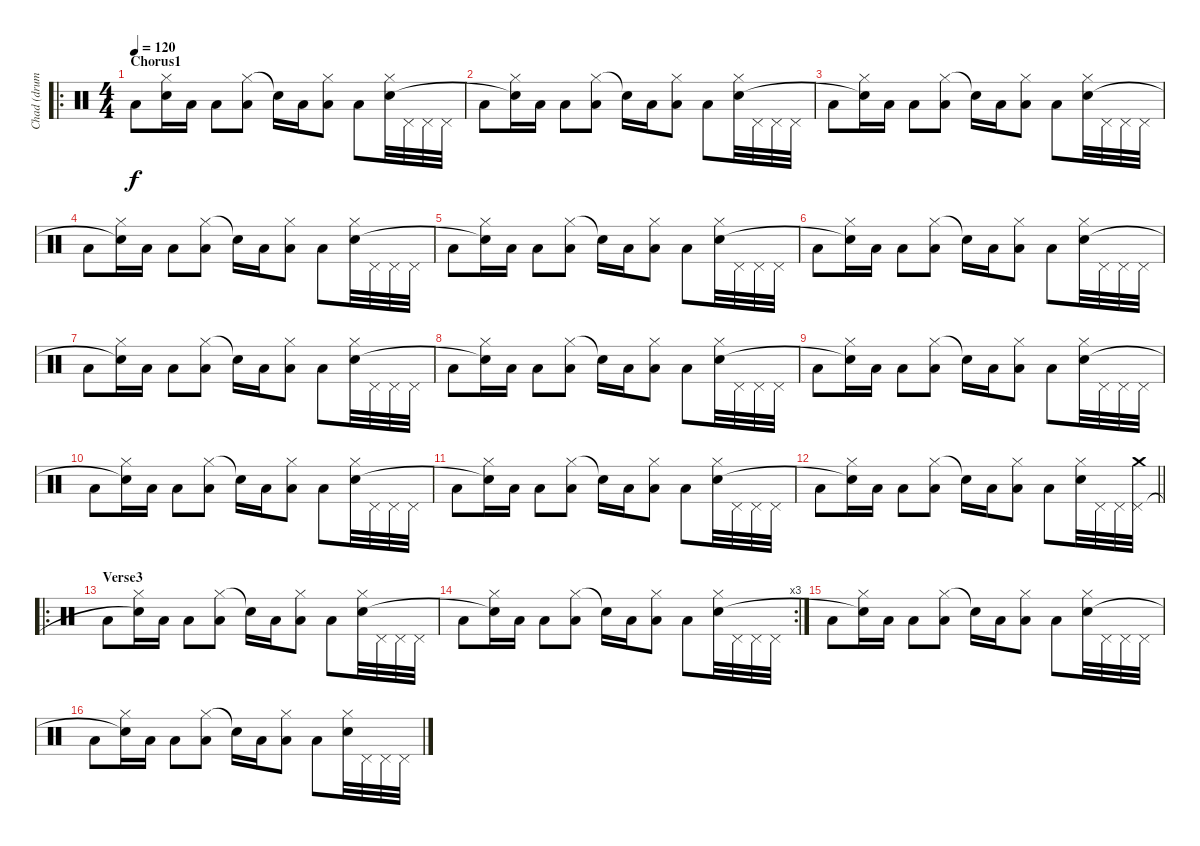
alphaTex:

\track ("Chad (drums)" "Chad (drum") {instrument percussion}
\staff {score}
\articulation defaults
\ro
\ts (4 4)
\section ("" "Chorus1")
\tempo 120
\clef neutral
\ks c "Low Tom (hit)".8{dy f}
("Hi-Hat (closed)" "Snare (hit)"{t}).16 "Low Tom (hit)".16 "Low Floor Tom (hit)".8 ("Hi-Hat (closed)" "Low Tom (hit)").8 "Snare (hit)"{t}.16 "Low Tom (hit)".16 ("Hi-Hat (closed)" "Low Floor Tom (hit)").8 "Low Tom (hit)".8 ("Hi-Hat (closed)" "Snare (hit) 2").32 "Pedal Hi-Hat (hit)".32 "Pedal Hi-Hat (hit)".32 "Pedal Hi-Hat (hit)".32 |
"Low Tom (hit)".8 ("Hi-Hat (closed)" "Snare (hit)"{t}).16 "Low Tom (hit)".16 "Low Floor Tom (hit)".8 ("Hi-Hat (closed)" "Low Tom (hit)").8 "Snare (hit)"{t}.16 "Low Tom (hit)".16 ("Hi-Hat (closed)" "Low Floor Tom (hit)").8 "Low Tom (hit)".8 ("Hi-Hat (closed)" "Snare (hit) 2").32 "Pedal Hi-Hat (hit)".32 "Pedal Hi-Hat (hit)".32 "Pedal Hi-Hat (hit)".32 |
"Low Tom (hit)".8 ("Hi-Hat (closed)" "Snare (hit)"{t}).16 "Low Tom (hit)".16 "Low Floor Tom (hit)".8 ("Hi-Hat (closed)" "Low Tom (hit)").8 "Snare (hit)"{t}.16 "Low Tom (hit)".16 ("Hi-Hat (closed)" "Low Floor Tom (hit)").8 "Low Tom (hit)".8 ("Hi-Hat (closed)" "Snare (hit) 2").32 "Pedal Hi-Hat (hit)".32 "Pedal Hi-Hat (hit)".32 "Pedal Hi-Hat (hit)".32 |
"Low Tom (hit)".8 ("Hi-Hat (closed)" "Snare (hit)"{t}).16 "Low Tom (hit)".16 "Low Floor Tom (hit)".8 ("Hi-Hat (closed)" "Low Tom (hit)").8 "Snare (hit)"{t}.16 "Low Tom (hit)".16 ("Hi-Hat (closed)" "Low Floor Tom (hit)").8 "Low Tom (hit)".8 ("Hi-Hat (closed)" "Snare (hit) 2").32 "Pedal Hi-Hat (hit)".32 "Pedal Hi-Hat (hit)".32 "Pedal Hi-Hat (hit)".32 |
"Low Tom (hit)".8 ("Hi-Hat (closed)" "Snare (hit)"{t}).16 "Low Tom (hit)".16 "Low Floor Tom (hit)".8 ("Hi-Hat (closed)" "Low Tom (hit)").8 "Snare (hit)"{t}.16 "Low Tom (hit)".16 ("Hi-Hat (closed)" "Low Floor Tom (hit)").8 "Low Tom (hit)".8 ("Hi-Hat (closed)" "Snare (hit) 2").32 "Pedal Hi-Hat (hit)".32 "Pedal Hi-Hat (hit)".32 "Pedal Hi-Hat (hit)".32 |
"Low Tom (hit)".8 ("Hi-Hat (closed)" "Snare (hit)"{t}).16 "Low Tom (hit)".16 "Low Floor Tom (hit)".8 ("Hi-Hat (closed)" "Low Tom (hit)").8 "Snare (hit)"{t}.16 "Low Tom (hit)".16 ("Hi-Hat (closed)" "Low Floor Tom (hit)").8 "Low Tom (hit)".8 ("Hi-Hat (closed)" "Snare (hit) 2").32 "Pedal Hi-Hat (hit)".32 "Pedal Hi-Hat (hit)".32 "Pedal Hi-Hat (hit)".32 |
"Low Tom (hit)".8 ("Hi-Hat (closed)" "Snare (hit)"{t}).16 "Low Tom (hit)".16 "Low Floor Tom (hit)".8 ("Hi-Hat (closed)" "Low Tom (hit)").8 "Snare (hit)"{t}.16 "Low Tom (hit)".16 ("Hi-Hat (closed)" "Low Floor Tom (hit)").8 "Low Tom (hit)".8 ("Hi-Hat (closed)" "Snare (hit) 2").32 "Pedal Hi-Hat (hit)".32 "Pedal Hi-Hat (hit)".32 "Pedal Hi-Hat (hit)".32 |
"Low Tom (hit)".8 ("Hi-Hat (closed)" "Snare (hit)"{t}).16 "Low Tom (hit)".16 "Low Floor Tom (hit)".8 ("Hi-Hat (closed)" "Low Tom (hit)").8 "Snare (hit)"{t}.16 "Low Tom (hit)".16 ("Hi-Hat (closed)" "Low Floor Tom (hit)").8 "Low Tom (hit)".8 ("Hi-Hat (closed)" "Snare (hit) 2").32 "Pedal Hi-Hat (hit)".32 "Pedal Hi-Hat (hit)".32 "Pedal Hi-Hat (hit)".32 |
"Low Tom (hit)".8 ("Hi-Hat (closed)" "Snare (hit)"{t}).16 "Low Tom (hit)".16 "Low Floor Tom (hit)".8 ("Hi-Hat (closed)" "Low Tom (hit)").8 "Snare (hit)"{t}.16 "Low Tom (hit)".16 ("Hi-Hat (closed)" "Low Floor Tom (hit)").8 "Low Tom (hit)".8 ("Hi-Hat (closed)" "Snare (hit) 2").32 "Pedal Hi-Hat (hit)".32 "Pedal Hi-Hat (hit)".32 "Pedal Hi-Hat (hit)".32 |
"Low Tom (hit)".8 ("Hi-Hat (closed)" "Snare (hit)"{t}).16 "Low Tom (hit)".16 "Low Floor Tom (hit)".8 ("Hi-Hat (closed)" "Low Tom (hit)").8 "Snare (hit)"{t}.16 "Low Tom (hit)".16 ("Hi-Hat (closed)" "Low Floor Tom (hit)").8 "Low Tom (hit)".8 ("Hi-Hat (closed)" "Snare (hit) 2").32 "Pedal Hi-Hat (hit)".32 "Pedal Hi-Hat (hit)".32 "Pedal Hi-Hat (hit)".32 |
"Low Tom (hit)".8 ("Hi-Hat (closed)" "Snare (hit)"{t}).16 "Low Tom (hit)".16 "Low Floor Tom (hit)".8 ("Hi-Hat (closed)" "Low Tom (hit)").8 "Snare (hit)"{t}.16 "Low Tom (hit)".16 ("Hi-Hat (closed)" "Low Floor Tom (hit)").8 "Low Tom (hit)".8 ("Hi-Hat (closed)" "Snare (hit) 2").32 "Pedal Hi-Hat (hit)".32 "Pedal Hi-Hat (hit)".32 "Pedal Hi-Hat (hit)".32 |
\barLineRight lightlight "Low Tom (hit)".8
("Hi-Hat (closed)" "Snare (hit)"{t}).16 "Low Tom (hit)".16 "Low Floor Tom (hit)".8 ("Hi-Hat (closed)" "Low Tom (hit)").8 "Snare (hit)"{t}.16 "Low Tom (hit)".16 ("Hi-Hat (closed)" "Low Floor Tom (hit)").8 "Low Tom (hit)".8 ("Hi-Hat (closed)" "Snare (hit) 2").32 "Pedal Hi-Hat (hit)".32 "Pedal Hi-Hat (hit)".32 ("Crash medium (hit)" "Pedal Hi-Hat (hit)").32 |
\ro
\section ("" "Verse3")
"Low Tom (hit)".8 ("Hi-Hat (closed)" "Snare (hit)"{t}).16 "Low Tom (hit)".16 "Low Floor Tom (hit)".8 ("Hi-Hat (closed)" "Low Tom (hit)").8 "Snare (hit)"{t}.16 "Low Tom (hit)".16 ("Hi-Hat (closed)" "Low Floor Tom (hit)").8 "Low Tom (hit)".8 ("Hi-Hat (closed)" "Snare (hit) 2").32 "Pedal Hi-Hat (hit)".32 "Pedal Hi-Hat (hit)".32 "Pedal Hi-Hat (hit)".32 |
\rc 3 "Low Tom (hit)".8
("Hi-Hat (closed)" "Snare (hit)"{t}).16 "Low Tom (hit)".16 "Low Floor Tom (hit)".8 ("Hi-Hat (closed)" "Low Tom (hit)").8 "Snare (hit)"{t}.16 "Low Tom (hit)".16 ("Hi-Hat (closed)" "Low Floor Tom (hit)").8 "Low Tom (hit)".8 ("Hi-Hat (closed)" "Snare (hit) 2").32 "Pedal Hi-Hat (hit)".32 "Pedal Hi-Hat (hit)".32 "Pedal Hi-Hat (hit)".32 |
"Low Tom (hit)".8 ("Hi-Hat (closed)" "Snare (hit)"{t}).16 "Low Tom (hit)".16 "Low Floor Tom (hit)".8 ("Hi-Hat (closed)" "Low Tom (hit)").8 "Snare (hit)"{t}.16 "Low Tom (hit)".16 ("Hi-Hat (closed)" "Low Floor Tom (hit)").8 "Low Tom (hit)".8 ("Hi-Hat (closed)" "Snare (hit) 2").32 "Pedal Hi-Hat (hit)".32 "Pedal Hi-Hat (hit)".32 "Pedal Hi-Hat (hit)".32 |
"Low Tom (hit)".8 ("Hi-Hat (closed)" "Snare (hit)"{t}).16 "Low Tom (hit)".16 "Low Floor Tom (hit)".8 ("Hi-Hat (closed)" "Low Tom (hit)").8 "Snare (hit)"{t}.16 "Low Tom (hit)".16 ("Hi-Hat (closed)" "Low Floor Tom (hit)").8 "Low Tom (hit)".8 ("Hi-Hat (closed)" "Snare (hit) 2").32 "Pedal Hi-Hat (hit)".32 "Pedal Hi-Hat (hit)".32 "Pedal Hi-Hat (hit)".32
